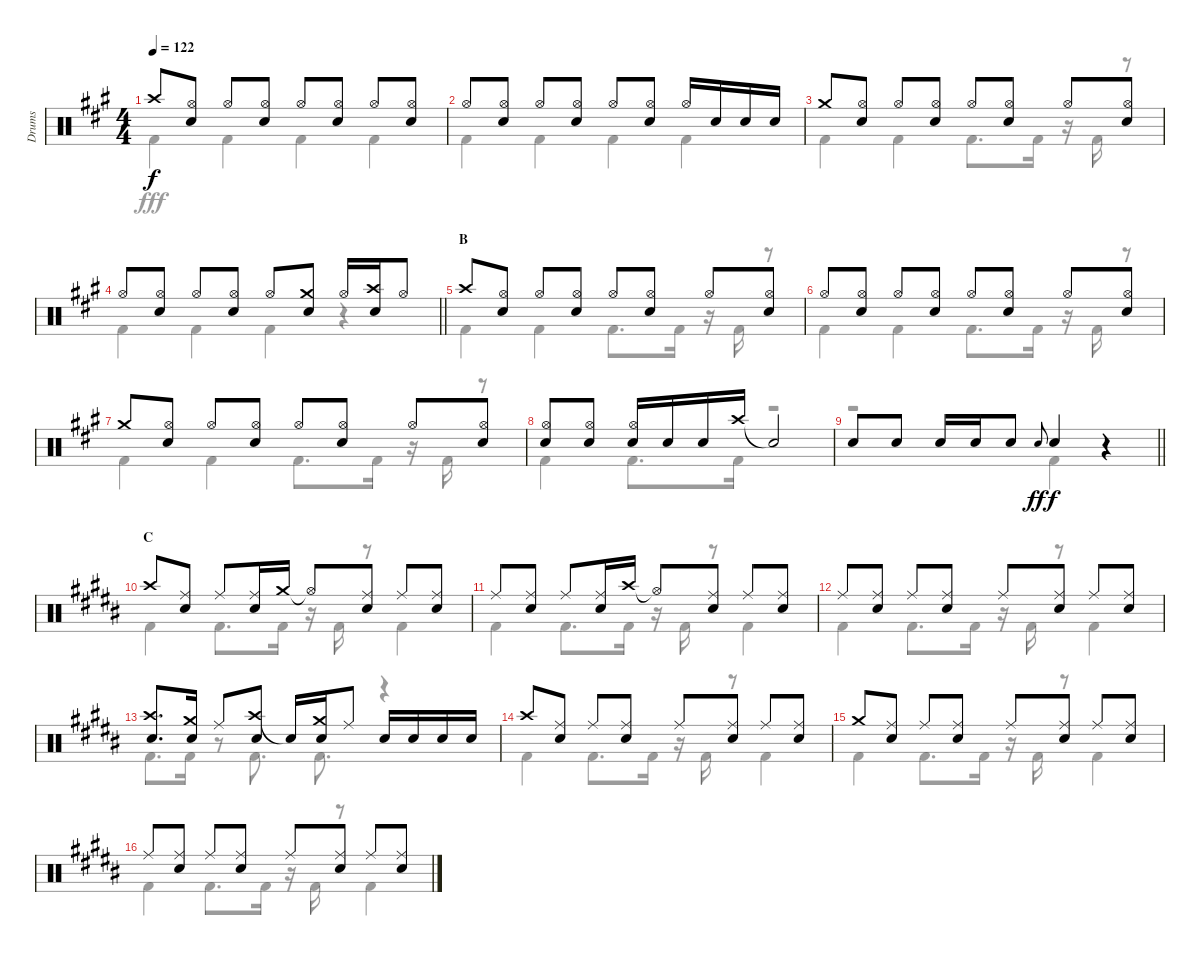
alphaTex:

\track ("Drums" "Drums") {instrument percussion}
\staff {score}
\articulation defaults
\voice
\ts (4 4)
\tempo 122
\clef neutral
\ks a "Crash high (hit)".8{dy f}
("Hi-Hat (open)" "Snare (hit) 2").8 "Hi-Hat (open)".8 ("Hi-Hat (open)" "Snare (hit) 2").8 "Hi-Hat (open)".8 ("Hi-Hat (open)" "Snare (hit) 2").8 "Hi-Hat (open)".8 ("Hi-Hat (open)" "Snare (hit) 2").8 |
"Hi-Hat (open)".8 ("Hi-Hat (open)" "Snare (hit) 2").8 "Hi-Hat (open)".8 ("Hi-Hat (open)" "Snare (hit) 2").8 "Hi-Hat (open)".8 ("Hi-Hat (open)" "Snare (hit) 2").8 "Hi-Hat (open)".16 "Snare (hit) 2".16 "Snare (hit) 2".16 "Snare (hit) 2".16 |
"Crash medium (hit)".8 ("Hi-Hat (open)" "Snare (hit) 2").8 "Hi-Hat (open)".8 ("Hi-Hat (open)" "Snare (hit) 2").8 "Hi-Hat (open)".8 ("Hi-Hat (open)" "Snare (hit) 2").8 "Hi-Hat (open)".8 ("Hi-Hat (open)" "Snare (hit) 2").8 |
\barLineRight lightlight "Hi-Hat (open)".8
("Hi-Hat (open)" "Snare (hit) 2").8 "Hi-Hat (open)".8 ("Hi-Hat (open)" "Snare (hit) 2").8 "Hi-Hat (open)".8 ("Crash medium (hit)" "Snare (hit) 2").8 "Hi-Hat (open)".16 ("Crash high (hit)" "Snare (hit) 2").16 "Hi-Hat (open)".8 |
\section ("" "B")
"Crash high (hit)".8 ("Hi-Hat (open)" "Snare (hit) 2").8 "Hi-Hat (open)".8 ("Hi-Hat (open)" "Snare (hit) 2").8 "Hi-Hat (open)".8 ("Hi-Hat (open)" "Snare (hit) 2").8 "Hi-Hat (open)".8 ("Hi-Hat (open)" "Snare (hit) 2").8 |
"Hi-Hat (open)".8 ("Hi-Hat (open)" "Snare (hit) 2").8 "Hi-Hat (open)".8 ("Hi-Hat (open)" "Snare (hit) 2").8 "Hi-Hat (open)".8 ("Hi-Hat (open)" "Snare (hit) 2").8 "Hi-Hat (open)".8 ("Hi-Hat (open)" "Snare (hit) 2").8 |
"Crash medium (hit)".8 ("Hi-Hat (open)" "Snare (hit) 2").8 "Hi-Hat (open)".8 ("Hi-Hat (open)" "Snare (hit) 2").8 "Hi-Hat (open)".8 ("Hi-Hat (open)" "Snare (hit) 2").8 "Hi-Hat (open)".8 ("Hi-Hat (open)" "Snare (hit) 2").8 |
("Hi-Hat (open)" "Snare (hit) 2").8 ("Hi-Hat (open)" "Snare (hit) 2").8 ("Hi-Hat (open)" "Snare (hit) 2").16 "Snare (hit) 2".16 "Snare (hit) 2".16 "Crash high (hit)".16 "Snare (hit)"{t}.2 |
\barLineRight lightlight "Snare (hit) 2".8 "Snare (hit) 2".8 "Snare (hit) 2".16 "Snare (hit) 2".16 "Snare (hit) 2".8 "Snare (hit) 2".8{gr onbeat dy ff} "Snare (hit) 2".4{dy f}
r.4 |
\section ("" "C")
\ks b "Crash high (hit)".8
("Ride (middle)" "Snare (hit) 2").8 "Ride (middle)".8 ("Ride (middle)" "Snare (hit) 2").16 "Crash medium (hit)".16 "Hi-Hat (open)"{t}.8 ("Ride (middle)" "Snare (hit) 2").8 "Ride (middle)".8 ("Ride (middle)" "Snare (hit) 2").8 |
"Ride (middle)".8 ("Ride (middle)" "Snare (hit) 2").8 "Ride (middle)".8 ("Ride (middle)" "Snare (hit) 2").16 "Crash high (hit)".16 "Hi-Hat (open)"{t}.8 ("Ride (middle)" "Snare (hit) 2").8 "Ride (middle)".8 ("Ride (middle)" "Snare (hit) 2").8 |
"Ride (middle)".8 ("Ride (middle)" "Snare (hit) 2").8 "Ride (middle)".8 ("Ride (middle)" "Snare (hit) 2").8 "Ride (middle)".8 ("Ride (middle)" "Snare (hit) 2").8 "Ride (middle)".8 ("Ride (middle)" "Snare (hit) 2").8 |
("Crash high (hit)" "Snare (hit) 2").8{d} ("Crash medium (hit)" "Snare (hit) 2").16 "Ride (middle)".8 ("Crash high (hit)" "Snare (hit) 2").8 "Snare (hit)"{t}.16 ("Crash medium (hit)" "Snare (hit) 2").16 "Ride (middle)".8 "Snare (hit) 2".16 "Snare (hit) 2".16 "Snare (hit) 2".16 "Snare (hit) 2".16 |
"Crash high (hit)".8 ("Ride (middle)" "Snare (hit) 2").8 "Ride (middle)".8 ("Ride (middle)" "Snare (hit) 2").8 "Ride (middle)".8 ("Ride (middle)" "Snare (hit) 2").8 "Ride (middle)".8 ("Ride (middle)" "Snare (hit) 2").8 |
"Crash medium (hit)".8 ("Ride (middle)" "Snare (hit) 2").8 "Ride (middle)".8 ("Ride (middle)" "Snare (hit) 2").8 "Ride (middle)".8 ("Ride (middle)" "Snare (hit) 2").8 "Ride (middle)".8 ("Ride (middle)" "Snare (hit) 2").8 |
"Ride (middle)".8 ("Ride (middle)" "Snare (hit) 2").8 "Ride (middle)".8 ("Ride (middle)" "Snare (hit) 2").8 "Ride (middle)".8 ("Ride (middle)" "Snare (hit) 2").8 "Ride (middle)".8 ("Ride (middle)" "Snare (hit) 2").8
\voice
\clef neutral
\ottava regular
\simile none
\ks a "Kick (hit) 2".4{dy fff} "Kick (hit) 2".4 "Kick (hit) 2".4 "Kick (hit) 2".4
|
"Kick (hit) 2".4 "Kick (hit) 2".4 "Kick (hit) 2".4 "Kick (hit) 2".4 |
"Kick (hit) 2".4 "Kick (hit) 2".4 "Kick (hit) 2".8{d} "Kick (hit) 2".16 r.16 "Kick (hit) 2".16 r.8 |
\barLineRight lightlight "Kick (hit) 2".4 "Kick (hit) 2".4 "Kick (hit) 2".4
r.4 |
"Kick (hit) 2".4 "Kick (hit) 2".4 "Kick (hit) 2".8{d} "Kick (hit) 2".16 r.16 "Kick (hit) 2".16 r.8 |
"Kick (hit) 2".4 "Kick (hit) 2".4 "Kick (hit) 2".8{d} "Kick (hit) 2".16 r.16 "Kick (hit) 2".16 r.8 |
"Kick (hit) 2".4 "Kick (hit) 2".4 "Kick (hit) 2".8{d} "Kick (hit) 2".16 r.16 "Kick (hit) 2".16 r.8 |
"Kick (hit) 2".4 "Kick (hit) 2".8{d} "Kick (hit) 2".16 r.2 |
\barLineRight lightlight
r.2 "Kick (hit) 2".4 r.4 |
\ks b "Kick (hit) 2".4 "Kick (hit) 2".8{d} "Kick (hit) 2".16
r.16 "Kick (hit) 2".16 r.8 "Kick (hit) 2".4 |
"Kick (hit) 2".4 "Kick (hit) 2".8{d} "Kick (hit) 2".16 r.16 "Kick (hit) 2".16 r.8 "Kick (hit) 2".4 |
"Kick (hit) 2".4 "Kick (hit) 2".8{d} "Kick (hit) 2".16 r.16 "Kick (hit) 2".16 r.8 "Kick (hit) 2".4 |
"Kick (hit) 2".8{d} "Kick (hit) 2".16 r.8 "Kick (hit) 2".8{d} "Kick (hit) 2".8{d} r.4 |
"Kick (hit) 2".4 "Kick (hit) 2".8{d} "Kick (hit) 2".16 r.16 "Kick (hit) 2".16 r.8 "Kick (hit) 2".4 |
"Kick (hit) 2".4 "Kick (hit) 2".8{d} "Kick (hit) 2".16 r.16 "Kick (hit) 2".16 r.8 "Kick (hit) 2".4 |
"Kick (hit) 2".4 "Kick (hit) 2".8{d} "Kick (hit) 2".16 r.16 "Kick (hit) 2".16 r.8 "Kick (hit) 2".4
